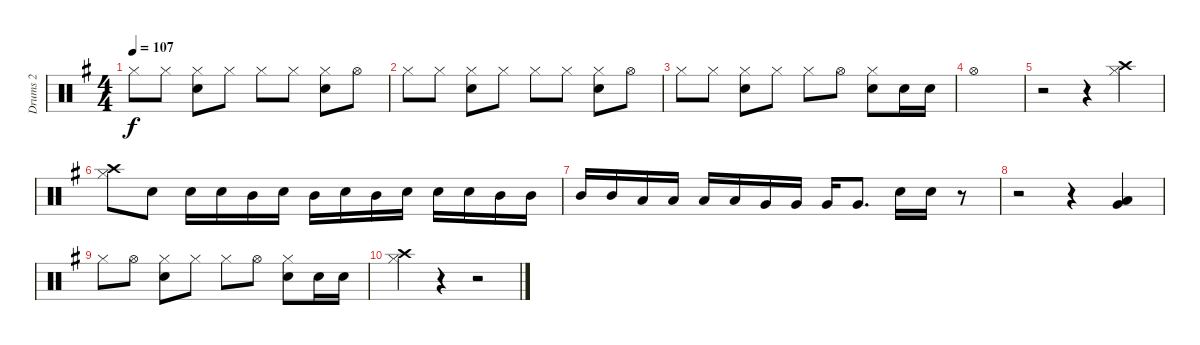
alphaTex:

\track ("Drums 2" "Drums 2") {instrument percussion}
\staff {score}
\articulation defaults
\ts (4 4)
\tempo 107
\clef neutral
\ks g "Hi-Hat (closed)".8{dy f} "Hi-Hat (closed)".8
("Hi-Hat (closed)" "Snare (hit) 2").8 "Hi-Hat (closed)".8 "Hi-Hat (closed)".8 "Hi-Hat (closed)".8 ("Hi-Hat (closed)" "Snare (hit) 2").8 "Hi-Hat (open)".8 |
"Hi-Hat (closed)".8 "Hi-Hat (closed)".8 ("Snare (hit) 2" "Hi-Hat (closed)").8 "Hi-Hat (closed)".8 "Hi-Hat (closed)".8 "Hi-Hat (closed)".8 ("Hi-Hat (closed)" "Snare (hit) 2").8 "Hi-Hat (open)".8 |
"Hi-Hat (closed)".8 "Hi-Hat (closed)".8 ("Hi-Hat (closed)" "Snare (hit) 2").8 "Hi-Hat (closed)".8 "Hi-Hat (closed)".8 "Hi-Hat (open)".8 ("Hi-Hat (closed)" "Snare (hit) 2").8 "Snare (hit) 2".16 "Snare (hit) 2".16 |
"Hi-Hat (open)".1 |
r.2 r.4 ("Crash high (hit)" "Hi-Hat (closed)").4 |
("Crash high (hit)" "Hi-Hat (closed)").8 "Snare (hit) 2".8 "Snare (hit) 2".16 "Snare (hit) 2".16 "Mid Tom (hit)".16 "Snare (hit) 2".16 "Mid Tom (hit)".16 "Snare (hit) 2".16 "Mid Tom (hit)".16 "Snare (hit) 2".16 "Snare (hit) 2".16 "Snare (hit) 2".16 "Mid Tom (hit)".16 "Mid Tom (hit)".16 |
"Mid Tom (hit)".16 "Mid Tom (hit)".16 "Low Tom (hit)".16 "Low Tom (hit)".16 "Low Tom (hit)".16 "Low Tom (hit)".16 "Very Low Tom (hit)".16 "Very Low Tom (hit)".16 "Very Low Tom (hit)".16 "Very Low Tom (hit)".8{d} "Snare (hit) 2".16 "Snare (hit) 2".16 r.8 |
r.2 r.4 ("Low Tom (hit)" "Very Low Tom (hit)").4 |
"Hi-Hat (closed)".8 "Hi-Hat (open)".8 ("Snare (hit) 2" "Hi-Hat (closed)").8 "Hi-Hat (closed)".8 "Hi-Hat (closed)".8 "Hi-Hat (open)".8 ("Hi-Hat (closed)" "Snare (hit) 2").8 "Snare (hit) 2".16 "Snare (hit) 2".16 |
("Hi-Hat (closed)" "Crash high (hit)").4 r.4 r.2
